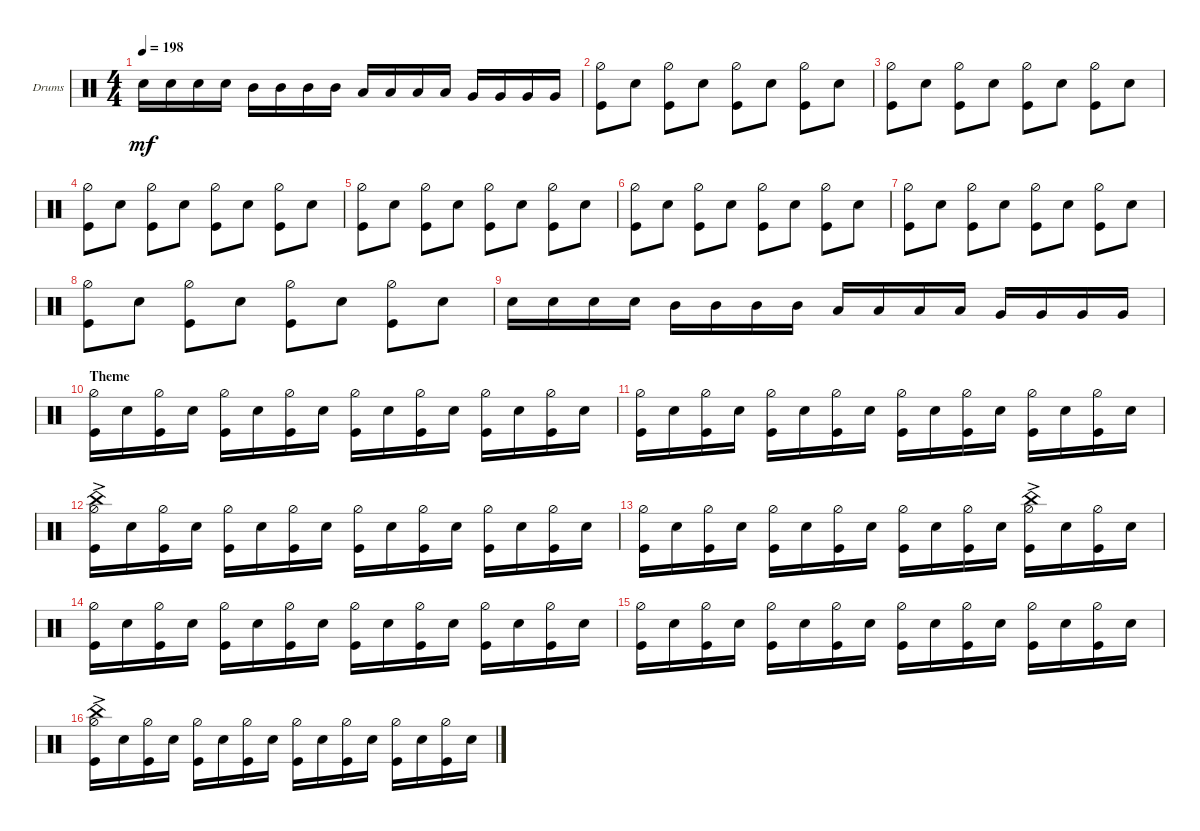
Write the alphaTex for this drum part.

\bracketExtendMode groupsimilarinstruments
\firstSystemTrackNameOrientation horizontal
\otherSystemsTrackNameOrientation horizontal
\track ("Drumkit" "Drums") {instrument percussion}
\staff {score}
\articulation defaults
\ts (4 4)
\tempo 198
\clef neutral
\ks c "Snare (hit) 2".16{dy mf} "Snare (hit) 2".16 "Snare (hit) 2".16 "Snare (hit) 2".16 "Mid Tom (hit)".16 "Mid Tom (hit)".16 "Mid Tom (hit)".16 "Mid Tom (hit)".16 "Low Tom (hit)".16 "Low Tom (hit)".16 "Low Tom (hit)".16 "Low Tom (hit)".16 "Very Low Tom (hit)".16 "Very Low Tom (hit)".16 "Very Low Tom (hit)".16 "Very Low Tom (hit)".16
|
("Kick (hit)" "Hi-Hat (half)").8 "Snare (hit) 2".8 ("Kick (hit)" "Hi-Hat (half)").8 "Snare (hit) 2".8 ("Kick (hit)" "Hi-Hat (half)").8 "Snare (hit) 2".8 ("Kick (hit)" "Hi-Hat (half)").8 "Snare (hit) 2".8 |
("Kick (hit)" "Hi-Hat (half)").8 "Snare (hit) 2".8 ("Kick (hit)" "Hi-Hat (half)").8 "Snare (hit) 2".8 ("Kick (hit)" "Hi-Hat (half)").8 "Snare (hit) 2".8 ("Kick (hit)" "Hi-Hat (half)").8 "Snare (hit) 2".8 |
("Kick (hit)" "Hi-Hat (half)").8 "Snare (hit) 2".8 ("Kick (hit)" "Hi-Hat (half)").8 "Snare (hit) 2".8 ("Kick (hit)" "Hi-Hat (half)").8 "Snare (hit) 2".8 ("Kick (hit)" "Hi-Hat (half)").8 "Snare (hit) 2".8 |
("Kick (hit)" "Hi-Hat (half)").8 "Snare (hit) 2".8 ("Kick (hit)" "Hi-Hat (half)").8 "Snare (hit) 2".8 ("Kick (hit)" "Hi-Hat (half)").8 "Snare (hit) 2".8 ("Kick (hit)" "Hi-Hat (half)").8 "Snare (hit) 2".8 |
("Kick (hit)" "Hi-Hat (half)").8 "Snare (hit) 2".8 ("Kick (hit)" "Hi-Hat (half)").8 "Snare (hit) 2".8 ("Kick (hit)" "Hi-Hat (half)").8 "Snare (hit) 2".8 ("Kick (hit)" "Hi-Hat (half)").8 "Snare (hit) 2".8 |
("Kick (hit)" "Hi-Hat (half)").8 "Snare (hit) 2".8 ("Kick (hit)" "Hi-Hat (half)").8 "Snare (hit) 2".8 ("Kick (hit)" "Hi-Hat (half)").8 "Snare (hit) 2".8 ("Kick (hit)" "Hi-Hat (half)").8 "Snare (hit) 2".8 |
("Kick (hit)" "Hi-Hat (half)").8 "Snare (hit) 2".8 ("Kick (hit)" "Hi-Hat (half)").8 "Snare (hit) 2".8 ("Kick (hit)" "Hi-Hat (half)").8 "Snare (hit) 2".8 ("Kick (hit)" "Hi-Hat (half)").8 "Snare (hit) 2".8 |
"Snare (hit) 2".16 "Snare (hit) 2".16 "Snare (hit) 2".16 "Snare (hit) 2".16 "Mid Tom (hit)".16 "Mid Tom (hit)".16 "Mid Tom (hit)".16 "Mid Tom (hit)".16 "Low Tom (hit)".16 "Low Tom (hit)".16 "Low Tom (hit)".16 "Low Tom (hit)".16 "Very Low Tom (hit)".16 "Very Low Tom (hit)".16 "Very Low Tom (hit)".16 "Very Low Tom (hit)".16 |
\section ("" "Theme")
("Hi-Hat (half)" "Kick (hit)").16 "Snare (hit) 2".16 ("Hi-Hat (half)" "Kick (hit)").16 "Snare (hit) 2".16 ("Hi-Hat (half)" "Kick (hit)").16 "Snare (hit) 2".16 ("Hi-Hat (half)" "Kick (hit)").16 "Snare (hit) 2".16 ("Hi-Hat (half)" "Kick (hit)").16 "Snare (hit) 2".16 ("Hi-Hat (half)" "Kick (hit)").16 "Snare (hit) 2".16 ("Hi-Hat (half)" "Kick (hit)").16 "Snare (hit) 2".16 ("Hi-Hat (half)" "Kick (hit)").16 "Snare (hit) 2".16 |
("Hi-Hat (half)" "Kick (hit)").16 "Snare (hit) 2".16 ("Hi-Hat (half)" "Kick (hit)").16 "Snare (hit) 2".16 ("Hi-Hat (half)" "Kick (hit)").16 "Snare (hit) 2".16 ("Hi-Hat (half)" "Kick (hit)").16 "Snare (hit) 2".16 ("Hi-Hat (half)" "Kick (hit)").16 "Snare (hit) 2".16 ("Hi-Hat (half)" "Kick (hit)").16 "Snare (hit) 2".16 ("Hi-Hat (half)" "Kick (hit)").16 "Snare (hit) 2".16 ("Hi-Hat (half)" "Kick (hit)").16 "Snare (hit) 2".16 |
("Hi-Hat (half)" "Kick (hit)" "China (hit)"{ac}).16 "Snare (hit) 2".16 ("Hi-Hat (half)" "Kick (hit)").16 "Snare (hit) 2".16 ("Hi-Hat (half)" "Kick (hit)").16 "Snare (hit) 2".16 ("Hi-Hat (half)" "Kick (hit)").16 "Snare (hit) 2".16 ("Hi-Hat (half)" "Kick (hit)").16 "Snare (hit) 2".16 ("Hi-Hat (half)" "Kick (hit)").16 "Snare (hit) 2".16 ("Hi-Hat (half)" "Kick (hit)").16 "Snare (hit) 2".16 ("Hi-Hat (half)" "Kick (hit)").16 "Snare (hit) 2".16 |
("Hi-Hat (half)" "Kick (hit)").16 "Snare (hit) 2".16 ("Hi-Hat (half)" "Kick (hit)").16 "Snare (hit) 2".16 ("Hi-Hat (half)" "Kick (hit)").16 "Snare (hit) 2".16 ("Hi-Hat (half)" "Kick (hit)").16 "Snare (hit) 2".16 ("Hi-Hat (half)" "Kick (hit)").16 "Snare (hit) 2".16 ("Hi-Hat (half)" "Kick (hit)").16 "Snare (hit) 2".16 ("Hi-Hat (half)" "Kick (hit)" "China (hit)"{ac}).16 "Snare (hit) 2".16 ("Hi-Hat (half)" "Kick (hit)").16 "Snare (hit) 2".16 |
("Hi-Hat (half)" "Kick (hit)").16 "Snare (hit) 2".16 ("Hi-Hat (half)" "Kick (hit)").16 "Snare (hit) 2".16 ("Hi-Hat (half)" "Kick (hit)").16 "Snare (hit) 2".16 ("Hi-Hat (half)" "Kick (hit)").16 "Snare (hit) 2".16 ("Hi-Hat (half)" "Kick (hit)").16 "Snare (hit) 2".16 ("Hi-Hat (half)" "Kick (hit)").16 "Snare (hit) 2".16 ("Hi-Hat (half)" "Kick (hit)").16 "Snare (hit) 2".16 ("Hi-Hat (half)" "Kick (hit)").16 "Snare (hit) 2".16 |
("Hi-Hat (half)" "Kick (hit)").16 "Snare (hit) 2".16 ("Hi-Hat (half)" "Kick (hit)").16 "Snare (hit) 2".16 ("Hi-Hat (half)" "Kick (hit)").16 "Snare (hit) 2".16 ("Hi-Hat (half)" "Kick (hit)").16 "Snare (hit) 2".16 ("Hi-Hat (half)" "Kick (hit)").16 "Snare (hit) 2".16 ("Hi-Hat (half)" "Kick (hit)").16 "Snare (hit) 2".16 ("Hi-Hat (half)" "Kick (hit)").16 "Snare (hit) 2".16 ("Hi-Hat (half)" "Kick (hit)").16 "Snare (hit) 2".16 |
("Hi-Hat (half)" "Kick (hit)" "China (hit)"{ac}).16 "Snare (hit) 2".16 ("Hi-Hat (half)" "Kick (hit)").16 "Snare (hit) 2".16 ("Hi-Hat (half)" "Kick (hit)").16 "Snare (hit) 2".16 ("Hi-Hat (half)" "Kick (hit)").16 "Snare (hit) 2".16 ("Hi-Hat (half)" "Kick (hit)").16 "Snare (hit) 2".16 ("Hi-Hat (half)" "Kick (hit)").16 "Snare (hit) 2".16 ("Hi-Hat (half)" "Kick (hit)").16 "Snare (hit) 2".16 ("Hi-Hat (half)" "Kick (hit)").16 "Snare (hit) 2".16
